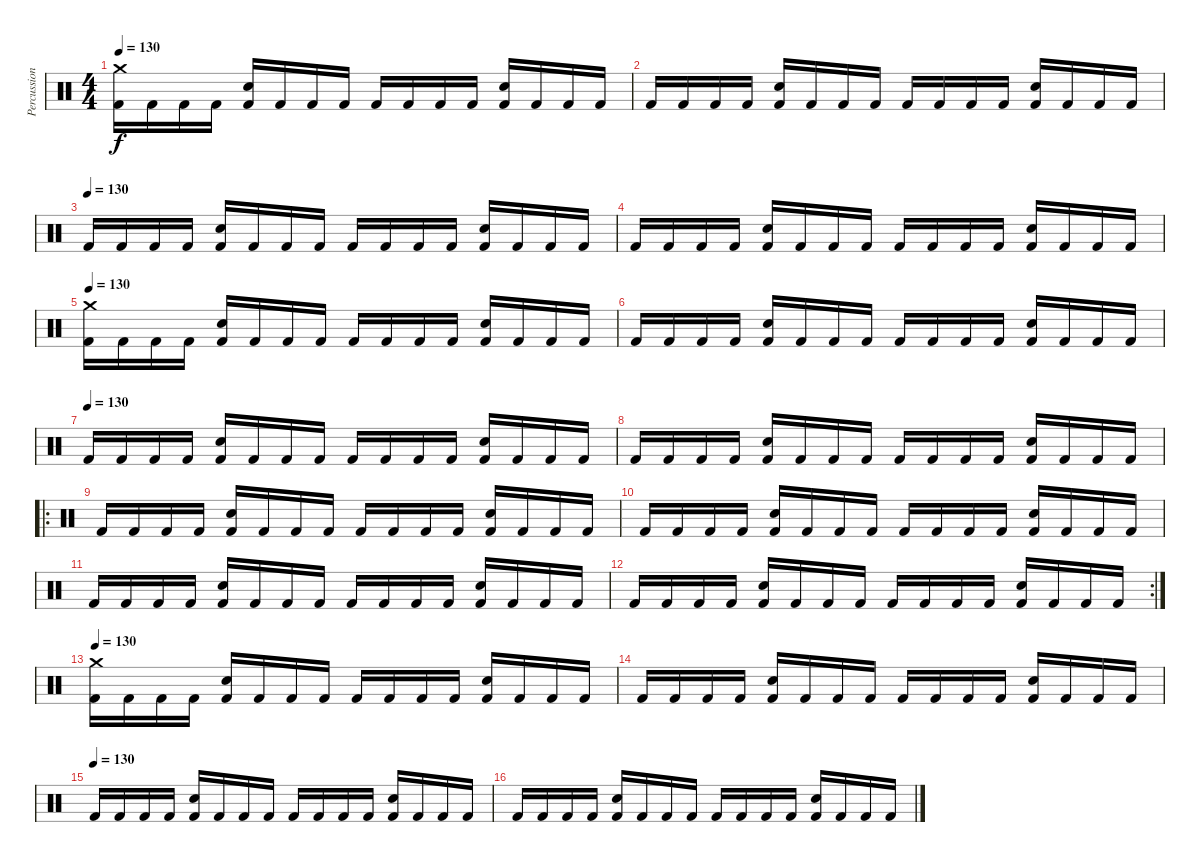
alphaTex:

\track ("Percussion" "Percussion") {instrument percussion}
\staff {score}
\articulation defaults
\ts (4 4)
\tempo 130
\clef neutral
\ks c
("Kick (hit) 2" "Crash medium (hit)").16{dy f} "Kick (hit) 2".16 "Kick (hit) 2".16 "Kick (hit) 2".16 ("Kick (hit) 2" "Snare (hit) 2").16 "Kick (hit) 2".16 "Kick (hit) 2".16 "Kick (hit) 2".16 "Kick (hit) 2".16 "Kick (hit) 2".16 "Kick (hit) 2".16 "Kick (hit) 2".16 ("Kick (hit) 2" "Snare (hit) 2").16 "Kick (hit) 2".16 "Kick (hit) 2".16 "Kick (hit) 2".16 |
"Kick (hit) 2".16 "Kick (hit) 2".16 "Kick (hit) 2".16 "Kick (hit) 2".16 ("Kick (hit) 2" "Snare (hit) 2").16 "Kick (hit) 2".16 "Kick (hit) 2".16 "Kick (hit) 2".16 "Kick (hit) 2".16 "Kick (hit) 2".16 "Kick (hit) 2".16 "Kick (hit) 2".16 ("Kick (hit) 2" "Snare (hit) 2").16 "Kick (hit) 2".16 "Kick (hit) 2".16 "Kick (hit) 2".16 |
\tempo (130)
"Kick (hit) 2".16 "Kick (hit) 2".16 "Kick (hit) 2".16 "Kick (hit) 2".16 ("Kick (hit) 2" "Snare (hit) 2").16 "Kick (hit) 2".16 "Kick (hit) 2".16 "Kick (hit) 2".16 "Kick (hit) 2".16 "Kick (hit) 2".16 "Kick (hit) 2".16 "Kick (hit) 2".16 ("Kick (hit) 2" "Snare (hit) 2").16 "Kick (hit) 2".16 "Kick (hit) 2".16 "Kick (hit) 2".16 |
"Kick (hit) 2".16 "Kick (hit) 2".16 "Kick (hit) 2".16 "Kick (hit) 2".16 ("Kick (hit) 2" "Snare (hit) 2").16 "Kick (hit) 2".16 "Kick (hit) 2".16 "Kick (hit) 2".16 "Kick (hit) 2".16 "Kick (hit) 2".16 "Kick (hit) 2".16 "Kick (hit) 2".16 ("Kick (hit) 2" "Snare (hit) 2").16 "Kick (hit) 2".16 "Kick (hit) 2".16 "Kick (hit) 2".16 |
\tempo 130
("Kick (hit) 2" "Crash medium (hit)").16 "Kick (hit) 2".16 "Kick (hit) 2".16 "Kick (hit) 2".16 ("Kick (hit) 2" "Snare (hit) 2").16 "Kick (hit) 2".16 "Kick (hit) 2".16 "Kick (hit) 2".16 "Kick (hit) 2".16 "Kick (hit) 2".16 "Kick (hit) 2".16 "Kick (hit) 2".16 ("Kick (hit) 2" "Snare (hit) 2").16 "Kick (hit) 2".16 "Kick (hit) 2".16 "Kick (hit) 2".16 |
"Kick (hit) 2".16 "Kick (hit) 2".16 "Kick (hit) 2".16 "Kick (hit) 2".16 ("Kick (hit) 2" "Snare (hit) 2").16 "Kick (hit) 2".16 "Kick (hit) 2".16 "Kick (hit) 2".16 "Kick (hit) 2".16 "Kick (hit) 2".16 "Kick (hit) 2".16 "Kick (hit) 2".16 ("Kick (hit) 2" "Snare (hit) 2").16 "Kick (hit) 2".16 "Kick (hit) 2".16 "Kick (hit) 2".16 |
\tempo (130)
"Kick (hit) 2".16 "Kick (hit) 2".16 "Kick (hit) 2".16 "Kick (hit) 2".16 ("Kick (hit) 2" "Snare (hit) 2").16 "Kick (hit) 2".16 "Kick (hit) 2".16 "Kick (hit) 2".16 "Kick (hit) 2".16 "Kick (hit) 2".16 "Kick (hit) 2".16 "Kick (hit) 2".16 ("Kick (hit) 2" "Snare (hit) 2").16 "Kick (hit) 2".16 "Kick (hit) 2".16 "Kick (hit) 2".16 |
"Kick (hit) 2".16 "Kick (hit) 2".16 "Kick (hit) 2".16 "Kick (hit) 2".16 ("Kick (hit) 2" "Snare (hit) 2").16 "Kick (hit) 2".16 "Kick (hit) 2".16 "Kick (hit) 2".16 "Kick (hit) 2".16 "Kick (hit) 2".16 "Kick (hit) 2".16 "Kick (hit) 2".16 ("Kick (hit) 2" "Snare (hit) 2").16 "Kick (hit) 2".16 "Kick (hit) 2".16 "Kick (hit) 2".16 |
\ro "Kick (hit) 2".16 "Kick (hit) 2".16 "Kick (hit) 2".16 "Kick (hit) 2".16
("Kick (hit) 2" "Snare (hit) 2").16 "Kick (hit) 2".16 "Kick (hit) 2".16 "Kick (hit) 2".16 "Kick (hit) 2".16 "Kick (hit) 2".16 "Kick (hit) 2".16 "Kick (hit) 2".16 ("Kick (hit) 2" "Snare (hit) 2").16 "Kick (hit) 2".16 "Kick (hit) 2".16 "Kick (hit) 2".16 |
"Kick (hit) 2".16 "Kick (hit) 2".16 "Kick (hit) 2".16 "Kick (hit) 2".16 ("Kick (hit) 2" "Snare (hit) 2").16 "Kick (hit) 2".16 "Kick (hit) 2".16 "Kick (hit) 2".16 "Kick (hit) 2".16 "Kick (hit) 2".16 "Kick (hit) 2".16 "Kick (hit) 2".16 ("Kick (hit) 2" "Snare (hit) 2").16 "Kick (hit) 2".16 "Kick (hit) 2".16 "Kick (hit) 2".16 |
"Kick (hit) 2".16 "Kick (hit) 2".16 "Kick (hit) 2".16 "Kick (hit) 2".16 ("Kick (hit) 2" "Snare (hit) 2").16 "Kick (hit) 2".16 "Kick (hit) 2".16 "Kick (hit) 2".16 "Kick (hit) 2".16 "Kick (hit) 2".16 "Kick (hit) 2".16 "Kick (hit) 2".16 ("Kick (hit) 2" "Snare (hit) 2").16 "Kick (hit) 2".16 "Kick (hit) 2".16 "Kick (hit) 2".16 |
\rc 2 "Kick (hit) 2".16 "Kick (hit) 2".16 "Kick (hit) 2".16 "Kick (hit) 2".16
("Kick (hit) 2" "Snare (hit) 2").16 "Kick (hit) 2".16 "Kick (hit) 2".16 "Kick (hit) 2".16 "Kick (hit) 2".16 "Kick (hit) 2".16 "Kick (hit) 2".16 "Kick (hit) 2".16 ("Kick (hit) 2" "Snare (hit) 2").16 "Kick (hit) 2".16 "Kick (hit) 2".16 "Kick (hit) 2".16 |
\tempo 130
("Kick (hit) 2" "Crash medium (hit)").16 "Kick (hit) 2".16 "Kick (hit) 2".16 "Kick (hit) 2".16 ("Kick (hit) 2" "Snare (hit) 2").16 "Kick (hit) 2".16 "Kick (hit) 2".16 "Kick (hit) 2".16 "Kick (hit) 2".16 "Kick (hit) 2".16 "Kick (hit) 2".16 "Kick (hit) 2".16 ("Kick (hit) 2" "Snare (hit) 2").16 "Kick (hit) 2".16 "Kick (hit) 2".16 "Kick (hit) 2".16 |
"Kick (hit) 2".16 "Kick (hit) 2".16 "Kick (hit) 2".16 "Kick (hit) 2".16 ("Kick (hit) 2" "Snare (hit) 2").16 "Kick (hit) 2".16 "Kick (hit) 2".16 "Kick (hit) 2".16 "Kick (hit) 2".16 "Kick (hit) 2".16 "Kick (hit) 2".16 "Kick (hit) 2".16 ("Kick (hit) 2" "Snare (hit) 2").16 "Kick (hit) 2".16 "Kick (hit) 2".16 "Kick (hit) 2".16 |
\tempo (130)
"Kick (hit) 2".16 "Kick (hit) 2".16 "Kick (hit) 2".16 "Kick (hit) 2".16 ("Kick (hit) 2" "Snare (hit) 2").16 "Kick (hit) 2".16 "Kick (hit) 2".16 "Kick (hit) 2".16 "Kick (hit) 2".16 "Kick (hit) 2".16 "Kick (hit) 2".16 "Kick (hit) 2".16 ("Kick (hit) 2" "Snare (hit) 2").16 "Kick (hit) 2".16 "Kick (hit) 2".16 "Kick (hit) 2".16 |
"Kick (hit) 2".16 "Kick (hit) 2".16 "Kick (hit) 2".16 "Kick (hit) 2".16 ("Kick (hit) 2" "Snare (hit) 2").16 "Kick (hit) 2".16 "Kick (hit) 2".16 "Kick (hit) 2".16 "Kick (hit) 2".16 "Kick (hit) 2".16 "Kick (hit) 2".16 "Kick (hit) 2".16 ("Kick (hit) 2" "Snare (hit) 2").16 "Kick (hit) 2".16 "Kick (hit) 2".16 "Kick (hit) 2".16
